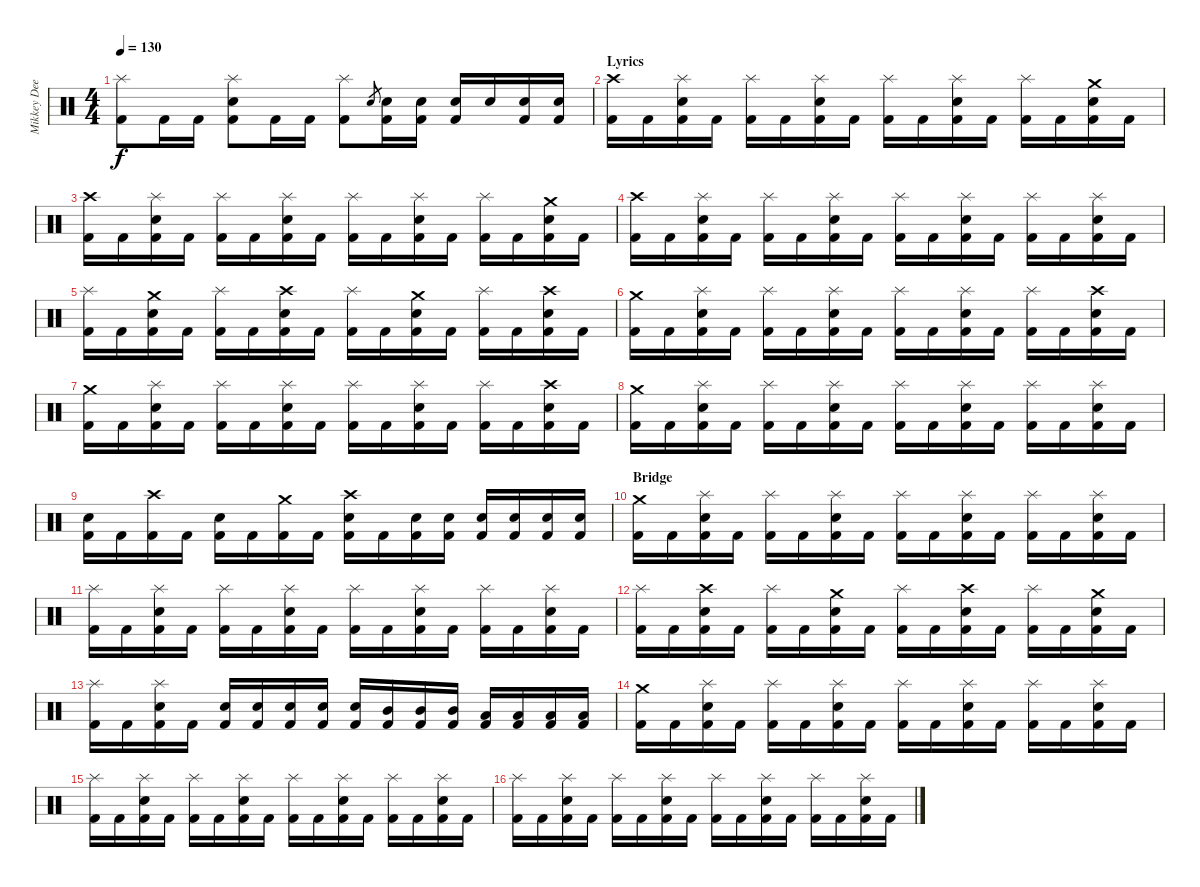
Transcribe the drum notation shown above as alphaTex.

\track ("Mikkey Dee" "Mikkey Dee") {instrument percussion}
\staff {score}
\articulation defaults
\ts (4 4)
\tempo 130
\clef neutral
\ks c
("Splash (hit)" "Kick (hit) 2").8{dy f} "Kick (hit) 2".16 "Kick (hit) 2".16 ("Splash (hit)" "Snare (hit) 2" "Kick (hit) 2").8 "Kick (hit) 2".16 "Kick (hit) 2".16 ("Splash (hit)" "Kick (hit) 2").8 "Snare (hit) 2".8{gr} ("Snare (hit) 2" "Kick (hit) 2").16 ("Snare (hit) 2" "Kick (hit) 2").16 ("Snare (hit) 2" "Kick (hit) 2").16 "Snare (hit) 2".16 ("Snare (hit) 2" "Kick (hit) 2").16 ("Snare (hit) 2" "Kick (hit) 2").16 |
\section ("" "Lyrics")
("Crash high (hit)" "Kick (hit) 2").16 "Kick (hit) 2".16 ("Splash (hit)" "Snare (hit) 2" "Kick (hit) 2").16 "Kick (hit) 2".16 ("Splash (hit)" "Kick (hit) 2").16 "Kick (hit) 2".16 ("Splash (hit)" "Snare (hit) 2" "Kick (hit) 2").16 "Kick (hit) 2".16 ("Splash (hit)" "Kick (hit) 2").16 "Kick (hit) 2".16 ("Splash (hit)" "Snare (hit) 2" "Kick (hit) 2").16 "Kick (hit) 2".16 ("Splash (hit)" "Kick (hit) 2").16 "Kick (hit) 2".16 ("Crash medium (hit)" "Snare (hit) 2" "Kick (hit) 2").16 "Kick (hit) 2".16 |
("Crash high (hit)" "Kick (hit) 2").16 "Kick (hit) 2".16 ("Splash (hit)" "Snare (hit) 2" "Kick (hit) 2").16 "Kick (hit) 2".16 ("Splash (hit)" "Kick (hit) 2").16 "Kick (hit) 2".16 ("Splash (hit)" "Snare (hit) 2" "Kick (hit) 2").16 "Kick (hit) 2".16 ("Splash (hit)" "Kick (hit) 2").16 "Kick (hit) 2".16 ("Splash (hit)" "Snare (hit) 2" "Kick (hit) 2").16 "Kick (hit) 2".16 ("Splash (hit)" "Kick (hit) 2").16 "Kick (hit) 2".16 ("Crash medium (hit)" "Snare (hit) 2" "Kick (hit) 2").16 "Kick (hit) 2".16 |
("Crash high (hit)" "Kick (hit) 2").16 "Kick (hit) 2".16 ("Splash (hit)" "Snare (hit) 2" "Kick (hit) 2").16 "Kick (hit) 2".16 ("Splash (hit)" "Kick (hit) 2").16 "Kick (hit) 2".16 ("Splash (hit)" "Snare (hit) 2" "Kick (hit) 2").16 "Kick (hit) 2".16 ("Splash (hit)" "Kick (hit) 2").16 "Kick (hit) 2".16 ("Splash (hit)" "Snare (hit) 2" "Kick (hit) 2").16 "Kick (hit) 2".16 ("Splash (hit)" "Kick (hit) 2").16 "Kick (hit) 2".16 ("Splash (hit)" "Snare (hit) 2" "Kick (hit) 2").16 "Kick (hit) 2".16 |
("Splash (hit)" "Kick (hit) 2").16 "Kick (hit) 2".16 ("Crash medium (hit)" "Snare (hit) 2" "Kick (hit) 2").16 "Kick (hit) 2".16 ("Splash (hit)" "Kick (hit) 2").16 "Kick (hit) 2".16 ("Crash high (hit)" "Snare (hit) 2" "Kick (hit) 2").16 "Kick (hit) 2".16 ("Splash (hit)" "Kick (hit) 2").16 "Kick (hit) 2".16 ("Crash medium (hit)" "Snare (hit) 2" "Kick (hit) 2").16 "Kick (hit) 2".16 ("Splash (hit)" "Kick (hit) 2").16 "Kick (hit) 2".16 ("Crash high (hit)" "Snare (hit) 2" "Kick (hit) 2").16 "Kick (hit) 2".16 |
("Crash medium (hit)" "Kick (hit) 2").16 "Kick (hit) 2".16 ("Splash (hit)" "Snare (hit) 2" "Kick (hit) 2").16 "Kick (hit) 2".16 ("Splash (hit)" "Kick (hit) 2").16 "Kick (hit) 2".16 ("Splash (hit)" "Snare (hit) 2" "Kick (hit) 2").16 "Kick (hit) 2".16 ("Splash (hit)" "Kick (hit) 2").16 "Kick (hit) 2".16 ("Splash (hit)" "Snare (hit) 2" "Kick (hit) 2").16 "Kick (hit) 2".16 ("Splash (hit)" "Kick (hit) 2").16 "Kick (hit) 2".16 ("Crash high (hit)" "Snare (hit) 2" "Kick (hit) 2").16 "Kick (hit) 2".16 |
("Crash medium (hit)" "Kick (hit) 2").16 "Kick (hit) 2".16 ("Splash (hit)" "Snare (hit) 2" "Kick (hit) 2").16 "Kick (hit) 2".16 ("Splash (hit)" "Kick (hit) 2").16 "Kick (hit) 2".16 ("Splash (hit)" "Snare (hit) 2" "Kick (hit) 2").16 "Kick (hit) 2".16 ("Splash (hit)" "Kick (hit) 2").16 "Kick (hit) 2".16 ("Splash (hit)" "Snare (hit) 2" "Kick (hit) 2").16 "Kick (hit) 2".16 ("Splash (hit)" "Kick (hit) 2").16 "Kick (hit) 2".16 ("Crash high (hit)" "Snare (hit) 2" "Kick (hit) 2").16 "Kick (hit) 2".16 |
("Crash medium (hit)" "Kick (hit) 2").16 "Kick (hit) 2".16 ("Splash (hit)" "Snare (hit) 2" "Kick (hit) 2").16 "Kick (hit) 2".16 ("Splash (hit)" "Kick (hit) 2").16 "Kick (hit) 2".16 ("Splash (hit)" "Snare (hit) 2" "Kick (hit) 2").16 "Kick (hit) 2".16 ("Splash (hit)" "Kick (hit) 2").16 "Kick (hit) 2".16 ("Splash (hit)" "Snare (hit) 2" "Kick (hit) 2").16 "Kick (hit) 2".16 ("Splash (hit)" "Kick (hit) 2").16 "Kick (hit) 2".16 ("Splash (hit)" "Snare (hit) 2" "Kick (hit) 2").16 "Kick (hit) 2".16 |
("Snare (hit) 2" "Kick (hit) 2").16 "Kick (hit) 2".16 ("Crash high (hit)" "Kick (hit) 2").16 "Kick (hit) 2".16 ("Snare (hit) 2" "Kick (hit) 2").16 "Kick (hit) 2".16 ("Crash medium (hit)" "Kick (hit) 2").16 "Kick (hit) 2".16 ("Crash high (hit)" "Snare (hit) 2" "Kick (hit) 2").16 "Kick (hit) 2".16 ("Snare (hit) 2" "Kick (hit) 2").16 ("Snare (hit) 2" "Kick (hit) 2").16 ("Snare (hit) 2" "Kick (hit) 2").16 ("Snare (hit) 2" "Kick (hit) 2").16 ("Snare (hit) 2" "Kick (hit) 2").16 ("Snare (hit) 2" "Kick (hit) 2").16 |
\section ("" "Bridge")
("Crash medium (hit)" "Kick (hit) 2").16 "Kick (hit) 2".16 ("Splash (hit)" "Snare (hit) 2" "Kick (hit) 2").16 "Kick (hit) 2".16 ("Splash (hit)" "Kick (hit) 2").16 "Kick (hit) 2".16 ("Splash (hit)" "Snare (hit) 2" "Kick (hit) 2").16 "Kick (hit) 2".16 ("Splash (hit)" "Kick (hit) 2").16 "Kick (hit) 2".16 ("Splash (hit)" "Snare (hit) 2" "Kick (hit) 2").16 "Kick (hit) 2".16 ("Splash (hit)" "Kick (hit) 2").16 "Kick (hit) 2".16 ("Splash (hit)" "Snare (hit) 2" "Kick (hit) 2").16 "Kick (hit) 2".16 |
("Splash (hit)" "Kick (hit) 2").16 "Kick (hit) 2".16 ("Splash (hit)" "Snare (hit) 2" "Kick (hit) 2").16 "Kick (hit) 2".16 ("Splash (hit)" "Kick (hit) 2").16 "Kick (hit) 2".16 ("Splash (hit)" "Snare (hit) 2" "Kick (hit) 2").16 "Kick (hit) 2".16 ("Splash (hit)" "Kick (hit) 2").16 "Kick (hit) 2".16 ("Splash (hit)" "Snare (hit) 2" "Kick (hit) 2").16 "Kick (hit) 2".16 ("Splash (hit)" "Kick (hit) 2").16 "Kick (hit) 2".16 ("Splash (hit)" "Snare (hit) 2" "Kick (hit) 2").16 "Kick (hit) 2".16 |
("Splash (hit)" "Kick (hit) 2").16 "Kick (hit) 2".16 ("Crash high (hit)" "Snare (hit) 2" "Kick (hit) 2").16 "Kick (hit) 2".16 ("Splash (hit)" "Kick (hit) 2").16 "Kick (hit) 2".16 ("Crash medium (hit)" "Snare (hit) 2" "Kick (hit) 2").16 "Kick (hit) 2".16 ("Splash (hit)" "Kick (hit) 2").16 "Kick (hit) 2".16 ("Crash high (hit)" "Snare (hit) 2" "Kick (hit) 2").16 "Kick (hit) 2".16 ("Splash (hit)" "Kick (hit) 2").16 "Kick (hit) 2".16 ("Crash medium (hit)" "Snare (hit) 2" "Kick (hit) 2").16 "Kick (hit) 2".16 |
("Splash (hit)" "Kick (hit) 2").16 "Kick (hit) 2".16 ("Splash (hit)" "Snare (hit) 2" "Kick (hit) 2").16 "Kick (hit) 2".16 ("Snare (hit) 2" "Kick (hit) 2").16 ("Snare (hit) 2" "Kick (hit) 2").16 ("Snare (hit) 2" "Kick (hit) 2").16 ("Snare (hit) 2" "Kick (hit) 2").16 ("Snare (hit) 2" "Kick (hit) 2").16 ("Mid Tom (hit)" "Kick (hit) 2").16 ("Mid Tom (hit)" "Kick (hit) 2").16 ("Mid Tom (hit)" "Kick (hit) 2").16 ("Low Tom (hit)" "Kick (hit) 2").16 ("Low Tom (hit)" "Kick (hit) 2").16 ("Low Tom (hit)" "Kick (hit) 2").16 ("Low Tom (hit)" "Kick (hit) 2").16 |
("Crash medium (hit)" "Kick (hit) 2").16 "Kick (hit) 2".16 ("Splash (hit)" "Snare (hit) 2" "Kick (hit) 2").16 "Kick (hit) 2".16 ("Splash (hit)" "Kick (hit) 2").16 "Kick (hit) 2".16 ("Splash (hit)" "Snare (hit) 2" "Kick (hit) 2").16 "Kick (hit) 2".16 ("Splash (hit)" "Kick (hit) 2").16 "Kick (hit) 2".16 ("Splash (hit)" "Snare (hit) 2" "Kick (hit) 2").16 "Kick (hit) 2".16 ("Splash (hit)" "Kick (hit) 2").16 "Kick (hit) 2".16 ("Splash (hit)" "Snare (hit) 2" "Kick (hit) 2").16 "Kick (hit) 2".16 |
("Splash (hit)" "Kick (hit) 2").16 "Kick (hit) 2".16 ("Splash (hit)" "Snare (hit) 2" "Kick (hit) 2").16 "Kick (hit) 2".16 ("Splash (hit)" "Kick (hit) 2").16 "Kick (hit) 2".16 ("Splash (hit)" "Snare (hit) 2" "Kick (hit) 2").16 "Kick (hit) 2".16 ("Splash (hit)" "Kick (hit) 2").16 "Kick (hit) 2".16 ("Splash (hit)" "Snare (hit) 2" "Kick (hit) 2").16 "Kick (hit) 2".16 ("Splash (hit)" "Kick (hit) 2").16 "Kick (hit) 2".16 ("Splash (hit)" "Snare (hit) 2" "Kick (hit) 2").16 "Kick (hit) 2".16 |
("Splash (hit)" "Kick (hit) 2").16 "Kick (hit) 2".16 ("Splash (hit)" "Snare (hit) 2" "Kick (hit) 2").16 "Kick (hit) 2".16 ("Splash (hit)" "Kick (hit) 2").16 "Kick (hit) 2".16 ("Splash (hit)" "Snare (hit) 2" "Kick (hit) 2").16 "Kick (hit) 2".16 ("Splash (hit)" "Kick (hit) 2").16 "Kick (hit) 2".16 ("Splash (hit)" "Snare (hit) 2" "Kick (hit) 2").16 "Kick (hit) 2".16 ("Splash (hit)" "Kick (hit) 2").16 "Kick (hit) 2".16 ("Splash (hit)" "Snare (hit) 2" "Kick (hit) 2").16 "Kick (hit) 2".16
